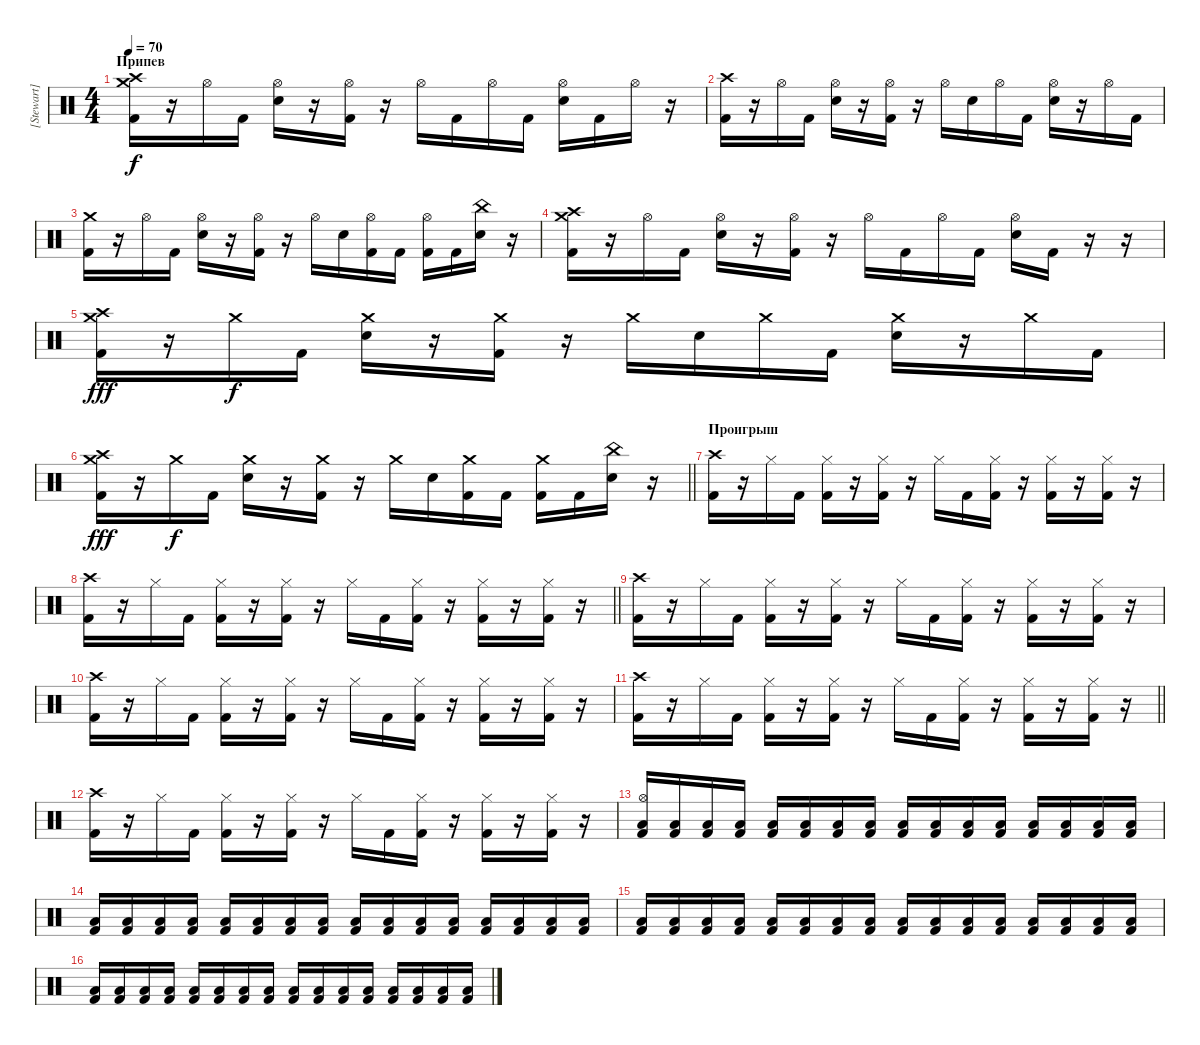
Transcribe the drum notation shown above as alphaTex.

\track ("[Stewart]" "[Stewart]") {instrument percussion}
\staff {score}
\articulation defaults
\ts (4 4)
\section ("" "Припев")
\tempo 70
\clef neutral
\ks c
("Crash medium (hit)" "Crash high (hit)" "Kick (hit) 2").16{dy f} r.16 "Hi-Hat (open)".16 "Kick (hit) 2".16 ("Hi-Hat (open)" "Electric Snare (hit)").16 r.16 ("Hi-Hat (open)" "Kick (hit) 2").16 r.16 "Hi-Hat (open)".16 "Kick (hit) 2".16 "Hi-Hat (open)".16 "Kick (hit) 2".16 ("Hi-Hat (open)" "Electric Snare (hit)").16 "Kick (hit) 2".16 "Hi-Hat (open)".16 r.16 |
("Crash high (hit)" "Kick (hit) 2").16 r.16 "Hi-Hat (open)".16 "Kick (hit) 2".16 ("Hi-Hat (open)" "Electric Snare (hit)").16 r.16 ("Hi-Hat (open)" "Kick (hit) 2").16 r.16 "Hi-Hat (open)".16 "Electric Snare (hit)".16 "Hi-Hat (open)".16 "Kick (hit) 2".16 ("Hi-Hat (open)" "Electric Snare (hit)").16 r.16 "Hi-Hat (open)".16 "Kick (hit) 2".16 |
("Crash medium (hit)" "Kick (hit) 2").16 r.16 "Hi-Hat (open)".16 "Kick (hit) 2".16 ("Hi-Hat (open)" "Electric Snare (hit)").16 r.16 ("Hi-Hat (open)" "Kick (hit) 2").16 r.16 "Hi-Hat (open)".16 "Electric Snare (hit)".16 ("Hi-Hat (open)" "Kick (hit) 2").16 "Kick (hit) 2".16 ("Hi-Hat (open)" "Kick (hit) 2").16 "Kick (hit) 2".16 ("China (hit)" "Electric Snare (hit)").16 r.16 |
("Crash medium (hit)" "Crash high (hit)" "Kick (hit) 2").16 r.16 "Hi-Hat (open)".16 "Kick (hit) 2".16 ("Hi-Hat (open)" "Electric Snare (hit)").16 r.16 ("Hi-Hat (open)" "Kick (hit) 2").16 r.16 "Hi-Hat (open)".16 "Kick (hit) 2".16 "Hi-Hat (open)".16 "Kick (hit) 2".16 ("Hi-Hat (open)" "Electric Snare (hit)").16 "Kick (hit) 2".16 r.16 r.16 |
("Crash medium (hit)" "Crash high (hit)" "Kick (hit) 2").16{dy fff} r.16 "Crash medium (hit)".16{dy f} "Kick (hit) 2".16 ("Crash medium (hit)" "Electric Snare (hit)").16 r.16 ("Crash medium (hit)" "Kick (hit) 2").16 r.16 "Crash medium (hit)".16 "Electric Snare (hit)".16 "Crash medium (hit)".16 "Kick (hit) 2".16 ("Crash medium (hit)" "Electric Snare (hit)").16 r.16 "Crash medium (hit)".16 "Kick (hit) 2".16 |
\barLineRight lightlight
("Crash medium (hit)" "Crash high (hit)" "Kick (hit) 2").16{dy fff} r.16 "Crash medium (hit)".16{dy f} "Kick (hit) 2".16 ("Crash medium (hit)" "Electric Snare (hit)").16 r.16 ("Crash medium (hit)" "Kick (hit) 2").16 r.16 "Crash medium (hit)".16 "Electric Snare (hit)".16 ("Crash medium (hit)" "Kick (hit) 2").16 "Kick (hit) 2".16 ("Crash medium (hit)" "Kick (hit) 2").16 "Kick (hit) 2".16 ("China (hit)" "Electric Snare (hit)").16 r.16 |
\section ("" "Проигрыш")
("Crash high (hit)" "Kick (hit) 2").16 r.16 "Hi-Hat (closed)".16 "Kick (hit) 2".16 ("Hi-Hat (closed)" "Kick (hit) 2").16 r.16 ("Hi-Hat (closed)" "Kick (hit) 2").16 r.16 "Hi-Hat (closed)".16 "Kick (hit) 2".16 ("Hi-Hat (closed)" "Kick (hit) 2").16 r.16 ("Hi-Hat (closed)" "Kick (hit) 2").16 r.16 ("Hi-Hat (closed)" "Kick (hit) 2").16 r.16 |
\barLineRight lightlight
("Crash high (hit)" "Kick (hit) 2").16 r.16 "Hi-Hat (closed)".16 "Kick (hit) 2".16 ("Hi-Hat (closed)" "Kick (hit) 2").16 r.16 ("Hi-Hat (closed)" "Kick (hit) 2").16 r.16 "Hi-Hat (closed)".16 "Kick (hit) 2".16 ("Hi-Hat (closed)" "Kick (hit) 2").16 r.16 ("Hi-Hat (closed)" "Kick (hit) 2").16 r.16 ("Hi-Hat (closed)" "Kick (hit) 2").16 r.16 |
("Crash high (hit)" "Kick (hit) 2").16 r.16 "Hi-Hat (closed)".16 "Kick (hit) 2".16 ("Hi-Hat (closed)" "Kick (hit) 2").16 r.16 ("Hi-Hat (closed)" "Kick (hit) 2").16 r.16 "Hi-Hat (closed)".16 "Kick (hit) 2".16 ("Hi-Hat (closed)" "Kick (hit) 2").16 r.16 ("Hi-Hat (closed)" "Kick (hit) 2").16 r.16 ("Hi-Hat (closed)" "Kick (hit) 2").16 r.16 |
("Crash high (hit)" "Kick (hit) 2").16 r.16 "Hi-Hat (closed)".16 "Kick (hit) 2".16 ("Hi-Hat (closed)" "Kick (hit) 2").16 r.16 ("Hi-Hat (closed)" "Kick (hit) 2").16 r.16 "Hi-Hat (closed)".16 "Kick (hit) 2".16 ("Hi-Hat (closed)" "Kick (hit) 2").16 r.16 ("Hi-Hat (closed)" "Kick (hit) 2").16 r.16 ("Hi-Hat (closed)" "Kick (hit) 2").16 r.16 |
\barLineRight lightlight
("Crash high (hit)" "Kick (hit) 2").16 r.16 "Hi-Hat (closed)".16 "Kick (hit) 2".16 ("Hi-Hat (closed)" "Kick (hit) 2").16 r.16 ("Hi-Hat (closed)" "Kick (hit) 2").16 r.16 "Hi-Hat (closed)".16 "Kick (hit) 2".16 ("Hi-Hat (closed)" "Kick (hit) 2").16 r.16 ("Hi-Hat (closed)" "Kick (hit) 2").16 r.16 ("Hi-Hat (closed)" "Kick (hit) 2").16 r.16 |
("Crash high (hit)" "Kick (hit) 2").16 r.16 "Hi-Hat (closed)".16 "Kick (hit) 2".16 ("Hi-Hat (closed)" "Kick (hit) 2").16 r.16 ("Hi-Hat (closed)" "Kick (hit) 2").16 r.16 "Hi-Hat (closed)".16 "Kick (hit) 2".16 ("Hi-Hat (closed)" "Kick (hit) 2").16 r.16 ("Hi-Hat (closed)" "Kick (hit) 2").16 r.16 ("Hi-Hat (closed)" "Kick (hit) 2").16 r.16 |
("Hi-Hat (open)" "Low Tom (hit)" "Kick (hit) 2").16 ("Low Tom (hit)" "Kick (hit) 2").16 ("Low Tom (hit)" "Kick (hit) 2").16 ("Low Tom (hit)" "Kick (hit) 2").16 ("Low Tom (hit)" "Kick (hit) 2").16 ("Low Tom (hit)" "Kick (hit) 2").16 ("Low Tom (hit)" "Kick (hit) 2").16 ("Low Tom (hit)" "Kick (hit) 2").16 ("Low Tom (hit)" "Kick (hit) 2").16 ("Low Tom (hit)" "Kick (hit) 2").16 ("Low Tom (hit)" "Kick (hit) 2").16 ("Low Tom (hit)" "Kick (hit) 2").16 ("Low Tom (hit)" "Kick (hit) 2").16 ("Low Tom (hit)" "Kick (hit) 2").16 ("Low Tom (hit)" "Kick (hit) 2").16 ("Low Tom (hit)" "Kick (hit) 2").16 |
("Low Tom (hit)" "Kick (hit) 2").16 ("Low Tom (hit)" "Kick (hit) 2").16 ("Low Tom (hit)" "Kick (hit) 2").16 ("Low Tom (hit)" "Kick (hit) 2").16 ("Low Tom (hit)" "Kick (hit) 2").16 ("Low Tom (hit)" "Kick (hit) 2").16 ("Low Tom (hit)" "Kick (hit) 2").16 ("Low Tom (hit)" "Kick (hit) 2").16 ("Low Tom (hit)" "Kick (hit) 2").16 ("Low Tom (hit)" "Kick (hit) 2").16 ("Low Tom (hit)" "Kick (hit) 2").16 ("Low Tom (hit)" "Kick (hit) 2").16 ("Low Tom (hit)" "Kick (hit) 2").16 ("Low Tom (hit)" "Kick (hit) 2").16 ("Low Tom (hit)" "Kick (hit) 2").16 ("Low Tom (hit)" "Kick (hit) 2").16 |
("Low Tom (hit)" "Kick (hit) 2").16 ("Low Tom (hit)" "Kick (hit) 2").16 ("Low Tom (hit)" "Kick (hit) 2").16 ("Low Tom (hit)" "Kick (hit) 2").16 ("Low Tom (hit)" "Kick (hit) 2").16 ("Low Tom (hit)" "Kick (hit) 2").16 ("Low Tom (hit)" "Kick (hit) 2").16 ("Low Tom (hit)" "Kick (hit) 2").16 ("Low Tom (hit)" "Kick (hit) 2").16 ("Low Tom (hit)" "Kick (hit) 2").16 ("Low Tom (hit)" "Kick (hit) 2").16 ("Low Tom (hit)" "Kick (hit) 2").16 ("Low Tom (hit)" "Kick (hit) 2").16 ("Low Tom (hit)" "Kick (hit) 2").16 ("Low Tom (hit)" "Kick (hit) 2").16 ("Low Tom (hit)" "Kick (hit) 2").16 |
("Low Tom (hit)" "Kick (hit) 2").16 ("Low Tom (hit)" "Kick (hit) 2").16 ("Low Tom (hit)" "Kick (hit) 2").16 ("Low Tom (hit)" "Kick (hit) 2").16 ("Low Tom (hit)" "Kick (hit) 2").16 ("Low Tom (hit)" "Kick (hit) 2").16 ("Low Tom (hit)" "Kick (hit) 2").16 ("Low Tom (hit)" "Kick (hit) 2").16 ("Low Tom (hit)" "Kick (hit) 2").16 ("Low Tom (hit)" "Kick (hit) 2").16 ("Low Tom (hit)" "Kick (hit) 2").16 ("Low Tom (hit)" "Kick (hit) 2").16 ("Low Tom (hit)" "Kick (hit) 2").16 ("Low Tom (hit)" "Kick (hit) 2").16 ("Low Tom (hit)" "Kick (hit) 2").16 ("Low Tom (hit)" "Kick (hit) 2").16
